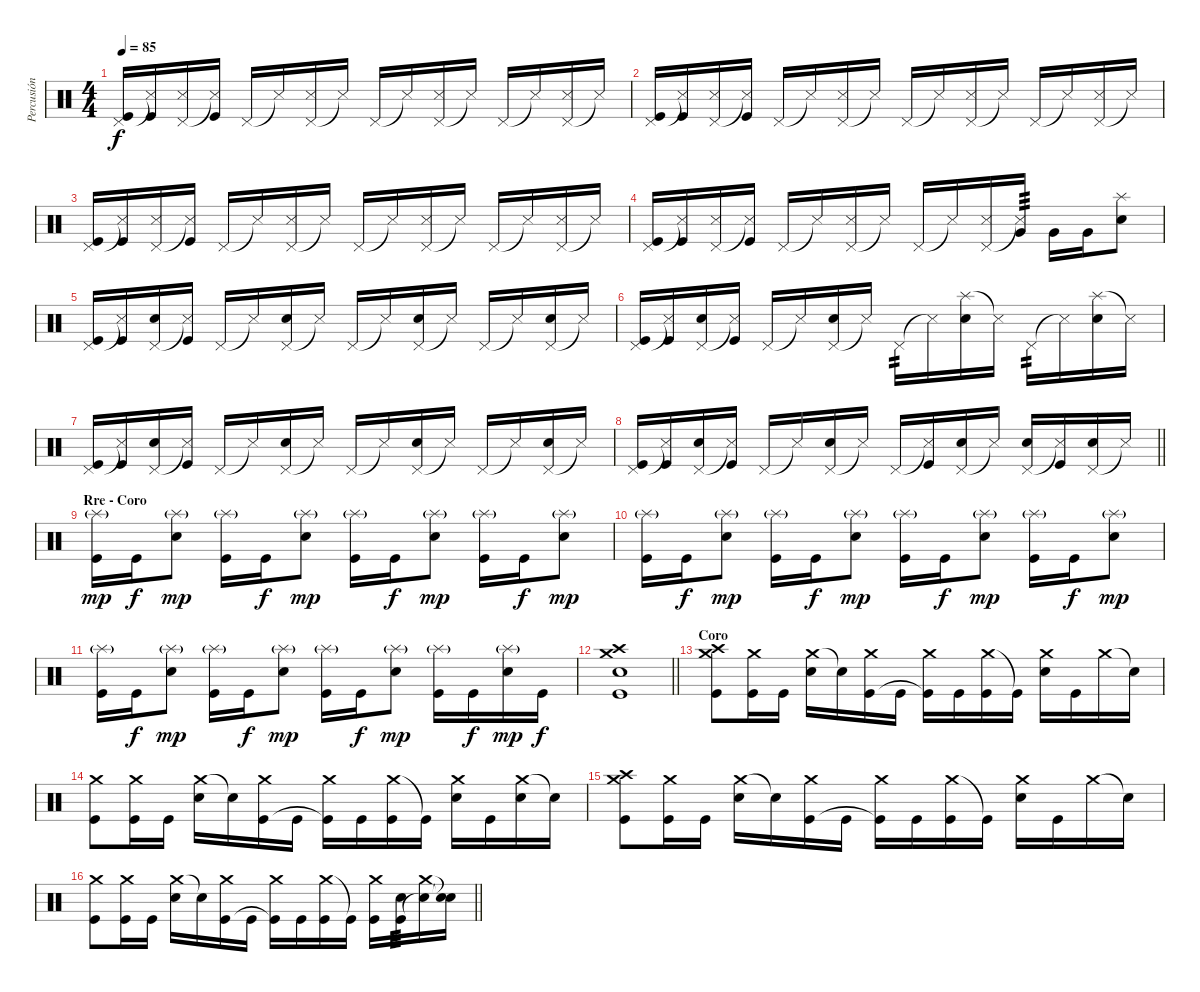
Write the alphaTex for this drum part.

\track ("Percusión" "Percusión") {instrument percussion}
\staff {score}
\articulation defaults
\ts (4 4)
\tempo 85
\clef neutral
\ks c
("Pedal Hi-Hat (hit)" "Kick (hit)").16{dy f} ("Snare (side stick) 3"{t} "Kick (hit)").16 ("Pedal Hi-Hat (hit)" "Snare (side stick) 3").16 ("Snare (side stick) 3"{t} "Kick (hit)").16 "Pedal Hi-Hat (hit)".16 "Snare (side stick) 3"{t}.16 ("Pedal Hi-Hat (hit)" "Snare (side stick) 3").16 "Snare (side stick) 3"{t}.16 "Pedal Hi-Hat (hit)".16 "Snare (side stick) 3"{t}.16 ("Pedal Hi-Hat (hit)" "Snare (side stick) 3").16 "Snare (side stick) 3"{t}.16 "Pedal Hi-Hat (hit)".16 "Snare (side stick) 3"{t}.16 ("Pedal Hi-Hat (hit)" "Snare (side stick) 3").16 "Snare (side stick) 3"{t}.16 |
("Pedal Hi-Hat (hit)" "Kick (hit)").16 ("Snare (side stick) 3"{t} "Kick (hit)").16 ("Pedal Hi-Hat (hit)" "Snare (side stick) 3").16 ("Snare (side stick) 3"{t} "Kick (hit)").16 "Pedal Hi-Hat (hit)".16 "Snare (side stick) 3"{t}.16 ("Pedal Hi-Hat (hit)" "Snare (side stick) 3").16 "Snare (side stick) 3"{t}.16 "Pedal Hi-Hat (hit)".16 "Snare (side stick) 3"{t}.16 ("Pedal Hi-Hat (hit)" "Snare (side stick) 3").16 "Snare (side stick) 3"{t}.16 "Pedal Hi-Hat (hit)".16 "Snare (side stick) 3"{t}.16 ("Pedal Hi-Hat (hit)" "Snare (side stick) 3").16 "Snare (side stick) 3"{t}.16 |
("Pedal Hi-Hat (hit)" "Kick (hit)").16 ("Snare (side stick) 3"{t} "Kick (hit)").16 ("Pedal Hi-Hat (hit)" "Snare (side stick) 3").16 ("Snare (side stick) 3"{t} "Kick (hit)").16 "Pedal Hi-Hat (hit)".16 "Snare (side stick) 3"{t}.16 ("Pedal Hi-Hat (hit)" "Snare (side stick) 3").16 "Snare (side stick) 3"{t}.16 "Pedal Hi-Hat (hit)".16 "Snare (side stick) 3"{t}.16 ("Pedal Hi-Hat (hit)" "Snare (side stick) 3").16 "Snare (side stick) 3"{t}.16 "Pedal Hi-Hat (hit)".16 "Snare (side stick) 3"{t}.16 ("Pedal Hi-Hat (hit)" "Snare (side stick) 3").16 "Snare (side stick) 3"{t}.16 |
("Pedal Hi-Hat (hit)" "Kick (hit)").16 ("Snare (side stick) 3"{t} "Kick (hit)").16 ("Pedal Hi-Hat (hit)" "Snare (side stick) 3").16 ("Snare (side stick) 3"{t} "Kick (hit)").16 "Pedal Hi-Hat (hit)".16 "Snare (side stick) 3"{t}.16 ("Pedal Hi-Hat (hit)" "Snare (side stick) 3").16 "Snare (side stick) 3"{t}.16 "Pedal Hi-Hat (hit)".16 "Snare (side stick) 3"{t}.16 ("Pedal Hi-Hat (hit)" "Snare (side stick) 3").16 ("Snare (side stick) 3"{t} "Very Low Tom (hit)").16{tp 3} "Very Low Tom (hit)".16 "Very Low Tom (hit)".16 ("Splash (hit)" "Electric Snare (hit)").8 |
("Pedal Hi-Hat (hit)" "Kick (hit)").16 ("Snare (side stick) 3"{t} "Kick (hit)").16 ("Pedal Hi-Hat (hit)" "Electric Snare (hit)").16 ("Snare (side stick) 3"{t} "Kick (hit)").16 "Pedal Hi-Hat (hit)".16 "Snare (side stick) 3"{t}.16 ("Pedal Hi-Hat (hit)" "Electric Snare (hit)").16 "Snare (side stick) 3"{t}.16 "Pedal Hi-Hat (hit)".16 "Snare (side stick) 3"{t}.16 ("Pedal Hi-Hat (hit)" "Electric Snare (hit)").16 "Snare (side stick) 3"{t}.16 "Pedal Hi-Hat (hit)".16 "Snare (side stick) 3"{t}.16 ("Pedal Hi-Hat (hit)" "Electric Snare (hit)").16 "Snare (side stick) 3"{t}.16 |
("Pedal Hi-Hat (hit)" "Kick (hit)").16 ("Snare (side stick) 3"{t} "Kick (hit)").16 ("Pedal Hi-Hat (hit)" "Electric Snare (hit)").16 ("Snare (side stick) 3"{t} "Kick (hit)").16 "Pedal Hi-Hat (hit)".16 "Snare (side stick) 3"{t}.16 ("Pedal Hi-Hat (hit)" "Electric Snare (hit)").16 "Snare (side stick) 3"{t}.16 "Pedal Hi-Hat (hit)".16{tp 2} "Snare (side stick) 3"{t}.16 ("Splash (hit)" "Electric Snare (hit)").16 "Snare (side stick) 3"{t}.16 "Pedal Hi-Hat (hit)".16{tp 2} "Snare (side stick) 3"{t}.16 ("Splash (hit)" "Electric Snare (hit)").16 "Snare (side stick) 3"{t}.16 |
("Pedal Hi-Hat (hit)" "Kick (hit)").16 ("Snare (side stick) 3"{t} "Kick (hit)").16 ("Pedal Hi-Hat (hit)" "Electric Snare (hit)").16 ("Snare (side stick) 3"{t} "Kick (hit)").16 "Pedal Hi-Hat (hit)".16 "Snare (side stick) 3"{t}.16 ("Pedal Hi-Hat (hit)" "Electric Snare (hit)").16 "Snare (side stick) 3"{t}.16 "Pedal Hi-Hat (hit)".16 "Snare (side stick) 3"{t}.16 ("Pedal Hi-Hat (hit)" "Electric Snare (hit)").16 "Snare (side stick) 3"{t}.16 "Pedal Hi-Hat (hit)".16 "Snare (side stick) 3"{t}.16 ("Pedal Hi-Hat (hit)" "Electric Snare (hit)").16 "Snare (side stick) 3"{t}.16 |
\barLineRight lightlight
("Pedal Hi-Hat (hit)" "Kick (hit)").16 ("Snare (side stick) 3"{t} "Kick (hit)").16 ("Pedal Hi-Hat (hit)" "Electric Snare (hit)").16 ("Snare (side stick) 3"{t} "Kick (hit)").16 "Pedal Hi-Hat (hit)".16 "Snare (side stick) 3"{t}.16 ("Pedal Hi-Hat (hit)" "Electric Snare (hit)").16 "Snare (side stick) 3"{t}.16 "Pedal Hi-Hat (hit)".16 ("Snare (side stick) 3"{t} "Kick (hit)").16 ("Pedal Hi-Hat (hit)" "Electric Snare (hit)").16 "Snare (side stick) 3"{t}.16 ("Pedal Hi-Hat (hit)" "Electric Snare (hit)").16 ("Snare (side stick) 3"{t} "Kick (hit)").16 ("Pedal Hi-Hat (hit)" "Electric Snare (hit)").16 "Snare (side stick) 3"{t}.16 |
\section ("" "Rre - Coro")
("Splash (hit)"{g} "Kick (hit)").16{dy mp} "Kick (hit)".16{dy f} ("Splash (hit)"{g} "Electric Snare (hit)").8{dy mp} ("Splash (hit)"{g} "Kick (hit)").16 "Kick (hit)".16{dy f} ("Splash (hit)"{g} "Electric Snare (hit)").8{dy mp} ("Splash (hit)"{g} "Kick (hit)").16 "Kick (hit)".16{dy f} ("Splash (hit)"{g} "Electric Snare (hit)").8{dy mp} ("Splash (hit)"{g} "Kick (hit)").16 "Kick (hit)".16{dy f} ("Splash (hit)"{g} "Electric Snare (hit)").8{dy mp} |
("Splash (hit)"{g} "Kick (hit)").16 "Kick (hit)".16{dy f} ("Splash (hit)"{g} "Electric Snare (hit)").8{dy mp} ("Splash (hit)"{g} "Kick (hit)").16 "Kick (hit)".16{dy f} ("Splash (hit)"{g} "Electric Snare (hit)").8{dy mp} ("Splash (hit)"{g} "Kick (hit)").16 "Kick (hit)".16{dy f} ("Splash (hit)"{g} "Electric Snare (hit)").8{dy mp} ("Splash (hit)"{g} "Kick (hit)").16 "Kick (hit)".16{dy f} ("Splash (hit)"{g} "Electric Snare (hit)").8{dy mp} |
("Splash (hit)"{g} "Kick (hit)").16 "Kick (hit)".16{dy f} ("Splash (hit)"{g} "Electric Snare (hit)").8{dy mp} ("Splash (hit)"{g} "Kick (hit)").16 "Kick (hit)".16{dy f} ("Splash (hit)"{g} "Electric Snare (hit)").8{dy mp} ("Splash (hit)"{g} "Kick (hit)").16 "Kick (hit)".16{dy f} ("Splash (hit)"{g} "Electric Snare (hit)").8{dy mp} ("Splash (hit)"{g} "Kick (hit)").16 "Kick (hit)".16{dy f} ("Splash (hit)"{g} "Electric Snare (hit)").16{dy mp} "Kick (hit)".16{dy f} |
\barLineRight lightlight
("Crash medium (hit)" "Crash high (hit)" "Electric Snare (hit)" "Kick (hit)").1 |
\section ("" "Coro")
("Crash medium (hit)" "Crash high (hit)" "Kick (hit)").8 ("Crash medium (hit)" "Kick (hit)").16 "Kick (hit)".16 ("Crash medium (hit)" "Electric Snare (hit)").16 "Snare (hit)"{t}.16 ("Crash medium (hit)" "Kick (hit)").16 "Kick (hit)".16 ("Crash medium (hit)" "Kick (hit)"{t}).16 "Kick (hit)".16 ("Crash medium (hit)" "Kick (hit)").16 "Kick (hit)"{t}.16 ("Crash medium (hit)" "Electric Snare (hit)").16 "Kick (hit)".16 "Crash medium (hit)".16 "Snare (hit)"{t}.16 |
("Crash medium (hit)" "Kick (hit)").8 ("Crash medium (hit)" "Kick (hit)").16 "Kick (hit)".16 ("Crash medium (hit)" "Electric Snare (hit)").16 "Snare (hit)"{t}.16 ("Crash medium (hit)" "Kick (hit)").16 "Kick (hit)".16 ("Crash medium (hit)" "Kick (hit)"{t}).16 "Kick (hit)".16 ("Crash medium (hit)" "Kick (hit)").16 "Kick (hit)"{t}.16 ("Crash medium (hit)" "Electric Snare (hit)").16 "Kick (hit)".16 ("Crash medium (hit)" "Electric Snare (hit)").16 "Snare (hit)"{t}.16 |
("Crash medium (hit)" "Crash high (hit)" "Kick (hit)").8 ("Crash medium (hit)" "Kick (hit)").16 "Kick (hit)".16 ("Crash medium (hit)" "Electric Snare (hit)").16 "Snare (hit)"{t}.16 ("Crash medium (hit)" "Kick (hit)").16 "Kick (hit)".16 ("Crash medium (hit)" "Kick (hit)"{t}).16 "Kick (hit)".16 ("Crash medium (hit)" "Kick (hit)").16 "Kick (hit)"{t}.16 ("Crash medium (hit)" "Electric Snare (hit)").16 "Kick (hit)".16 "Crash medium (hit)".16 "Snare (hit)"{t}.16 |
\barLineRight lightlight
("Crash medium (hit)" "Kick (hit)").8 ("Crash medium (hit)" "Kick (hit)").16 "Kick (hit)".16 ("Crash medium (hit)" "Electric Snare (hit)").16 "Snare (hit)"{t}.16 ("Crash medium (hit)" "Kick (hit)").16 "Kick (hit)".16 ("Crash medium (hit)" "Kick (hit)"{t}).16 "Kick (hit)".16 ("Crash medium (hit)" "Kick (hit)").16 "Kick (hit)"{t}.16 ("Crash medium (hit)" "Kick (hit)").16 ("Electric Snare (hit)" "Kick (hit)").16{tp 3} ("Crash medium (hit)" "Electric Snare (hit)"{t}).16 ("Snare (hit)"{t} "Electric Snare (hit)"{t}).16
